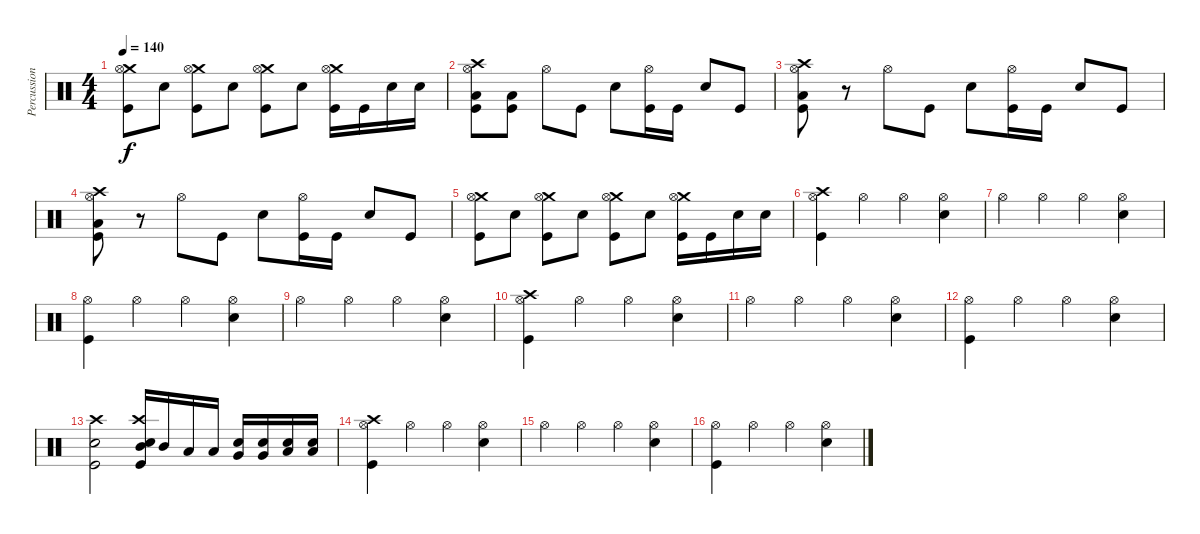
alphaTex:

\track ("Percussion" "Percussion") {instrument percussion}
\staff {score}
\articulation defaults
\ts (4 4)
\tempo 140
\clef neutral
\ks c
("Crash medium (hit)" "Hi-Hat (open)" "Kick (hit)").8{dy f} "Electric Snare (hit)".8 ("Crash medium (hit)" "Hi-Hat (open)" "Kick (hit)").8 "Electric Snare (hit)".8 ("Crash medium (hit)" "Hi-Hat (open)" "Kick (hit)").8 "Electric Snare (hit)".8 ("Crash medium (hit)" "Hi-Hat (open)" "Kick (hit)").16 "Kick (hit)".16 "Electric Snare (hit)".16 "Electric Snare (hit)".16 |
("Crash high (hit)" "Hi-Hat (open)" "Low Floor Tom (hit)" "Kick (hit)").8 ("Low Floor Tom (hit)" "Kick (hit)").8 "Hi-Hat (open)".8 "Kick (hit)".8 "Electric Snare (hit)".8 ("Hi-Hat (open)" "Kick (hit)").16 "Kick (hit)".16 "Electric Snare (hit)".8 "Kick (hit)".8 |
("Crash high (hit)" "Hi-Hat (open)" "Low Floor Tom (hit)" "Kick (hit)").8 r.8 "Hi-Hat (open)".8 "Kick (hit)".8 "Electric Snare (hit)".8 ("Hi-Hat (open)" "Kick (hit)").16 "Kick (hit)".16 "Electric Snare (hit)".8 "Kick (hit)".8 |
("Crash high (hit)" "Hi-Hat (open)" "Low Floor Tom (hit)" "Kick (hit)").8 r.8 "Hi-Hat (open)".8 "Kick (hit)".8 "Electric Snare (hit)".8 ("Hi-Hat (open)" "Kick (hit)").16 "Kick (hit)".16 "Electric Snare (hit)".8 "Kick (hit)".8 |
("Crash medium (hit)" "Hi-Hat (open)" "Kick (hit)").8 "Electric Snare (hit)".8 ("Crash medium (hit)" "Hi-Hat (open)" "Kick (hit)").8 "Electric Snare (hit)".8 ("Crash medium (hit)" "Hi-Hat (open)" "Kick (hit)").8 "Electric Snare (hit)".8 ("Crash medium (hit)" "Hi-Hat (open)" "Kick (hit)").16 "Kick (hit)".16 "Electric Snare (hit)".16 "Electric Snare (hit)".16 |
("Kick (hit)" "Hi-Hat (open)" "Crash high (hit)").4 "Hi-Hat (open)".4 "Hi-Hat (open)".4 ("Electric Snare (hit)" "Hi-Hat (open)").4 |
"Hi-Hat (open)".4 "Hi-Hat (open)".4 "Hi-Hat (open)".4 ("Electric Snare (hit)" "Hi-Hat (open)").4 |
("Kick (hit)" "Hi-Hat (open)").4 "Hi-Hat (open)".4 "Hi-Hat (open)".4 ("Electric Snare (hit)" "Hi-Hat (open)").4 |
"Hi-Hat (open)".4 "Hi-Hat (open)".4 "Hi-Hat (open)".4 ("Electric Snare (hit)" "Hi-Hat (open)").4 |
("Kick (hit)" "Hi-Hat (open)" "Crash high (hit)").4 "Hi-Hat (open)".4 "Hi-Hat (open)".4 ("Electric Snare (hit)" "Hi-Hat (open)").4 |
"Hi-Hat (open)".4 "Hi-Hat (open)".4 "Hi-Hat (open)".4 ("Electric Snare (hit)" "Hi-Hat (open)").4 |
("Kick (hit)" "Hi-Hat (open)").4 "Hi-Hat (open)".4 "Hi-Hat (open)".4 ("Electric Snare (hit)" "Hi-Hat (open)").4 |
("Crash high (hit)" "Electric Snare (hit)" "Kick (hit)").2 ("Mid Tom (hit)" "Crash high (hit)" "Electric Snare (hit)" "Kick (hit)").16 "Mid Tom (hit)".16 "Low Tom (hit)".16 "Low Tom (hit)".16 ("Very Low Tom (hit)" "Electric Snare (hit)").16 ("Very Low Tom (hit)" "Electric Snare (hit)").16 ("Low Floor Tom (hit)" "Electric Snare (hit)").16 ("Low Floor Tom (hit)" "Electric Snare (hit)").16 |
("Kick (hit)" "Hi-Hat (open)" "Crash high (hit)").4 "Hi-Hat (open)".4 "Hi-Hat (open)".4 ("Electric Snare (hit)" "Hi-Hat (open)").4 |
"Hi-Hat (open)".4 "Hi-Hat (open)".4 "Hi-Hat (open)".4 ("Electric Snare (hit)" "Hi-Hat (open)").4 |
("Kick (hit)" "Hi-Hat (open)").4 "Hi-Hat (open)".4 "Hi-Hat (open)".4 ("Electric Snare (hit)" "Hi-Hat (open)").4
